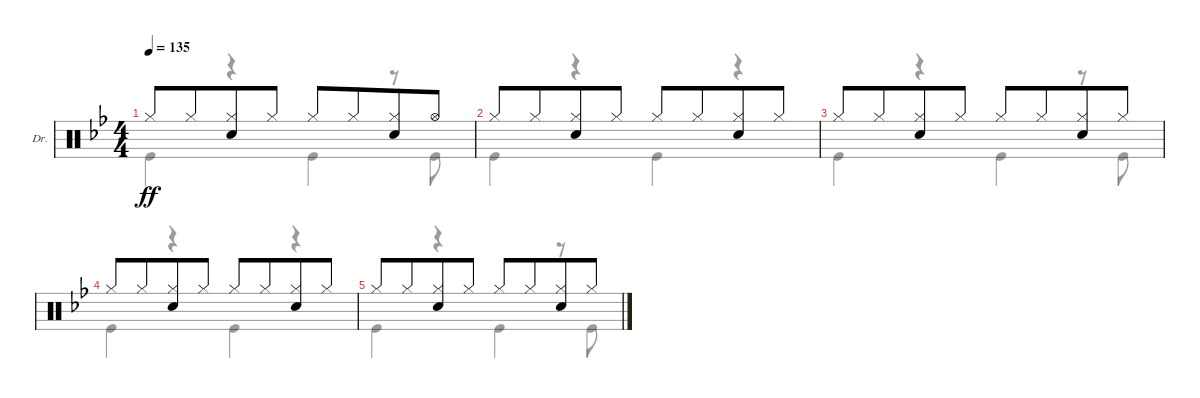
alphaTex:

\defaultSystemsLayout 4
\bracketExtendMode groupsimilarinstruments
\firstSystemTrackNameOrientation horizontal
\otherSystemsTrackNameOrientation horizontal
\track ("Drums" "Dr.") {instrument percussion}
\staff {score}
\articulation defaults
\voice
\ts (4 4)
\tempo 135
\clef neutral
\ks bb "Hi-Hat (closed)".8{dy ff beam merge} "Hi-Hat (closed)".8{beam merge}
("Hi-Hat (closed)" "Snare (hit) 2").8{beam merge} "Hi-Hat (closed)".8 "Hi-Hat (closed)".8{beam merge} "Hi-Hat (closed)".8{beam merge} ("Hi-Hat (closed)" "Snare (hit) 2").8{beam merge} "Hi-Hat (open)".8 |
"Hi-Hat (closed)".8{beam merge} "Hi-Hat (closed)".8{beam merge} ("Hi-Hat (closed)" "Snare (hit) 2").8{beam merge} "Hi-Hat (closed)".8 "Hi-Hat (closed)".8{beam merge} "Hi-Hat (closed)".8{beam merge} ("Hi-Hat (closed)" "Snare (hit) 2").8{beam merge} "Hi-Hat (closed)".8 |
"Hi-Hat (closed)".8{beam merge} "Hi-Hat (closed)".8{beam merge} ("Hi-Hat (closed)" "Snare (hit) 2").8{beam merge} "Hi-Hat (closed)".8 "Hi-Hat (closed)".8{beam merge} "Hi-Hat (closed)".8{beam merge} ("Hi-Hat (closed)" "Snare (hit) 2").8{beam merge} "Hi-Hat (closed)".8 |
"Hi-Hat (closed)".8{beam merge} "Hi-Hat (closed)".8{beam merge} ("Hi-Hat (closed)" "Snare (hit) 2").8{beam merge} "Hi-Hat (closed)".8 "Hi-Hat (closed)".8{beam merge} "Hi-Hat (closed)".8{beam merge} ("Hi-Hat (closed)" "Snare (hit) 2").8{beam merge} "Hi-Hat (closed)".8 |
"Hi-Hat (closed)".8{beam merge} "Hi-Hat (closed)".8{beam merge} ("Hi-Hat (closed)" "Snare (hit) 2").8{beam merge} "Hi-Hat (closed)".8 "Hi-Hat (closed)".8{beam merge} "Hi-Hat (closed)".8{beam merge} ("Hi-Hat (closed)" "Snare (hit) 2").8{beam merge} "Hi-Hat (closed)".8
\voice
\clef neutral
\ottava regular
\simile none
\ks bb "Kick (hit)".4{dy ff}
r.4 "Kick (hit)".4 r.8 "Kick (hit)".8 |
"Kick (hit)".4 r.4 "Kick (hit)".4 r.4 |
"Kick (hit)".4 r.4 "Kick (hit)".4 r.8 "Kick (hit)".8 |
"Kick (hit)".4 r.4 "Kick (hit)".4 r.4 |
"Kick (hit)".4 r.4 "Kick (hit)".4 r.8 "Kick (hit)".8
